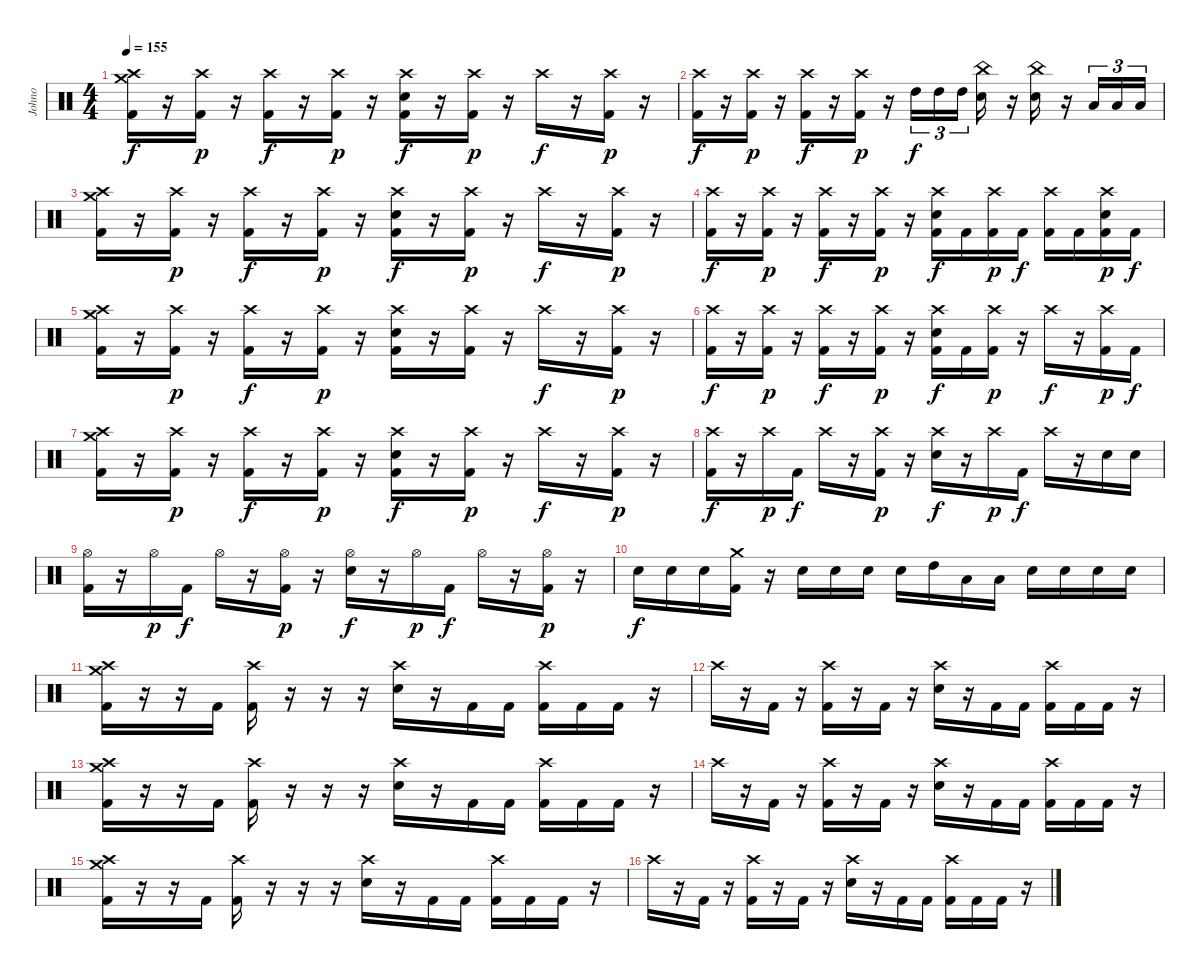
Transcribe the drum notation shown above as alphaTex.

\track ("Johno" "Johno") {instrument percussion}
\staff {score}
\articulation defaults
\ts (4 4)
\tempo 155
\clef neutral
\ks c
("Crash medium (hit)" "Crash high (hit)" "Kick (hit) 2").16{dy f} r.16 ("Crash high (hit)" "Kick (hit) 2").16{dy p} r.16 ("Crash high (hit)" "Kick (hit) 2").16{dy f} r.16 ("Crash high (hit)" "Kick (hit) 2").16{dy p} r.16 ("Crash high (hit)" "Electric Snare (hit)" "Kick (hit) 2").16{dy f} r.16 ("Crash high (hit)" "Kick (hit) 2").16{dy p} r.16 "Crash high (hit)".16{dy f} r.16 ("Crash high (hit)" "Kick (hit) 2").16{dy p} r.16 |
("Crash high (hit)" "Kick (hit) 2").16{dy f} r.16 ("Crash high (hit)" "Kick (hit) 2").16{dy p} r.16 ("Crash high (hit)" "Kick (hit) 2").16{dy f} r.16 ("Crash high (hit)" "Kick (hit) 2").16{dy p} r.16 "High Tom (hit)".16{tu (3 2) dy f} "High Tom (hit)".16{tu (3 2)} "High Tom (hit)".16{tu (3 2) beam splitsecondary} ("China (hit)" "Electric Snare (hit)").16 r.16 ("China (hit)" "Electric Snare (hit)").16 r.16 "Low Floor Tom (hit)".16{tu (3 2)} "Low Floor Tom (hit)".16{tu (3 2)} "Low Floor Tom (hit)".16{tu (3 2)} |
("Crash medium (hit)" "Crash high (hit)" "Kick (hit) 2").16 r.16 ("Crash high (hit)" "Kick (hit) 2").16{dy p} r.16 ("Crash high (hit)" "Kick (hit) 2").16{dy f} r.16 ("Crash high (hit)" "Kick (hit) 2").16{dy p} r.16 ("Crash high (hit)" "Electric Snare (hit)" "Kick (hit) 2").16{dy f} r.16 ("Crash high (hit)" "Kick (hit) 2").16{dy p} r.16 "Crash high (hit)".16{dy f} r.16 ("Crash high (hit)" "Kick (hit) 2").16{dy p} r.16 |
("Crash high (hit)" "Kick (hit) 2").16{dy f} r.16 ("Crash high (hit)" "Kick (hit) 2").16{dy p} r.16 ("Crash high (hit)" "Kick (hit) 2").16{dy f} r.16 ("Crash high (hit)" "Kick (hit) 2").16{dy p} r.16 ("Crash high (hit)" "Electric Snare (hit)" "Kick (hit) 2").16{dy f} "Kick (hit) 2".16 ("Crash high (hit)" "Kick (hit) 2").16{dy p} "Kick (hit) 2".16{dy f} ("Crash high (hit)" "Kick (hit) 2").16 "Kick (hit) 2".16 ("Crash high (hit)" "Electric Snare (hit)" "Kick (hit) 2").16{dy p} "Kick (hit) 2".16{dy f} |
("Crash medium (hit)" "Crash high (hit)" "Kick (hit) 2").16 r.16 ("Crash high (hit)" "Kick (hit) 2").16{dy p} r.16 ("Crash high (hit)" "Kick (hit) 2").16{dy f} r.16 ("Crash high (hit)" "Kick (hit) 2").16{dy p} r.16 ("Crash high (hit)" "Electric Snare (hit)" "Kick (hit) 2").16 r.16 ("Crash high (hit)" "Kick (hit) 2").16 r.16 "Crash high (hit)".16{dy f} r.16 ("Crash high (hit)" "Kick (hit) 2").16{dy p} r.16 |
("Crash high (hit)" "Kick (hit) 2").16{dy f} r.16 ("Crash high (hit)" "Kick (hit) 2").16{dy p} r.16 ("Crash high (hit)" "Kick (hit) 2").16{dy f} r.16 ("Crash high (hit)" "Kick (hit) 2").16{dy p} r.16 ("Crash high (hit)" "Electric Snare (hit)" "Kick (hit) 2").16{dy f} "Kick (hit) 2".16 ("Crash high (hit)" "Kick (hit) 2").16{dy p} r.16 "Crash high (hit)".16{dy f} r.16 ("Crash high (hit)" "Kick (hit) 2").16{dy p} "Kick (hit) 2".16{dy f} |
("Crash medium (hit)" "Crash high (hit)" "Kick (hit) 2").16 r.16 ("Crash high (hit)" "Kick (hit) 2").16{dy p} r.16 ("Crash high (hit)" "Kick (hit) 2").16{dy f} r.16 ("Crash high (hit)" "Kick (hit) 2").16{dy p} r.16 ("Crash high (hit)" "Electric Snare (hit)" "Kick (hit) 2").16{dy f} r.16 ("Crash high (hit)" "Kick (hit) 2").16{dy p} r.16 "Crash high (hit)".16{dy f} r.16 ("Crash high (hit)" "Kick (hit) 2").16{dy p} r.16 |
("Crash high (hit)" "Kick (hit) 2").16{dy f} r.16 "Crash high (hit)".16{dy p} "Kick (hit) 2".16{dy f} "Crash high (hit)".16 r.16 ("Crash high (hit)" "Kick (hit) 2").16{dy p} r.16 ("Crash high (hit)" "Electric Snare (hit)").16{dy f} r.16 "Crash high (hit)".16{dy p} "Kick (hit) 2".16{dy f} "Crash high (hit)".16 r.16 "Electric Snare (hit)".16 "Electric Snare (hit)".16 |
("Hi-Hat (open)" "Kick (hit) 2").16 r.16 "Hi-Hat (open)".16{dy p} "Kick (hit) 2".16{dy f} "Hi-Hat (open)".16 r.16 ("Hi-Hat (open)" "Kick (hit) 2").16{dy p} r.16 ("Hi-Hat (open)" "Electric Snare (hit)").16{dy f} r.16 "Hi-Hat (open)".16{dy p} "Kick (hit) 2".16{dy f} "Hi-Hat (open)".16 r.16 ("Hi-Hat (open)" "Kick (hit) 2").16{dy p} r.16 |
"Electric Snare (hit)".16{dy f} "Electric Snare (hit)".16 "Electric Snare (hit)".16 ("Crash medium (hit)" "Kick (hit) 2").16 r.16 "Electric Snare (hit)".16 "Electric Snare (hit)".16 "Electric Snare (hit)".16 "Electric Snare (hit)".16 "High Tom (hit)".16 "Low Floor Tom (hit)".16 "Low Floor Tom (hit)".16 "Electric Snare (hit)".16 "Electric Snare (hit)".16 "Electric Snare (hit)".16 "Electric Snare (hit)".16 |
("Crash medium (hit)" "Crash high (hit)" "Kick (hit) 2").16 r.16 r.16 "Kick (hit) 2".16 ("Crash high (hit)" "Kick (hit) 2").16 r.16 r.16 r.16 ("Crash high (hit)" "Electric Snare (hit)").16 r.16 "Kick (hit) 2".16 "Kick (hit) 2".16 ("Crash high (hit)" "Kick (hit) 2").16 "Kick (hit) 2".16 "Kick (hit) 2".16 r.16 |
"Crash high (hit)".16 r.16 "Kick (hit) 2".16 r.16 ("Crash high (hit)" "Kick (hit) 2").16 r.16 "Kick (hit) 2".16 r.16 ("Crash high (hit)" "Electric Snare (hit)").16 r.16 "Kick (hit) 2".16 "Kick (hit) 2".16 ("Crash high (hit)" "Kick (hit) 2").16 "Kick (hit) 2".16 "Kick (hit) 2".16 r.16 |
("Crash medium (hit)" "Crash high (hit)" "Kick (hit) 2").16 r.16 r.16 "Kick (hit) 2".16 ("Crash high (hit)" "Kick (hit) 2").16 r.16 r.16 r.16 ("Crash high (hit)" "Electric Snare (hit)").16 r.16 "Kick (hit) 2".16 "Kick (hit) 2".16 ("Crash high (hit)" "Kick (hit) 2").16 "Kick (hit) 2".16 "Kick (hit) 2".16 r.16 |
"Crash high (hit)".16 r.16 "Kick (hit) 2".16 r.16 ("Crash high (hit)" "Kick (hit) 2").16 r.16 "Kick (hit) 2".16 r.16 ("Crash high (hit)" "Electric Snare (hit)").16 r.16 "Kick (hit) 2".16 "Kick (hit) 2".16 ("Crash high (hit)" "Kick (hit) 2").16 "Kick (hit) 2".16 "Kick (hit) 2".16 r.16 |
("Crash high (hit)" "Crash medium (hit)" "Kick (hit) 2").16 r.16 r.16 "Kick (hit) 2".16 ("Crash high (hit)" "Kick (hit) 2").16 r.16 r.16 r.16 ("Crash high (hit)" "Electric Snare (hit)").16 r.16 "Kick (hit) 2".16 "Kick (hit) 2".16 ("Crash high (hit)" "Kick (hit) 2").16 "Kick (hit) 2".16 "Kick (hit) 2".16 r.16 |
"Crash high (hit)".16 r.16 "Kick (hit) 2".16 r.16 ("Crash high (hit)" "Kick (hit) 2").16 r.16 "Kick (hit) 2".16 r.16 ("Crash high (hit)" "Electric Snare (hit)").16 r.16 "Kick (hit) 2".16 "Kick (hit) 2".16 ("Crash high (hit)" "Kick (hit) 2").16 "Kick (hit) 2".16 "Kick (hit) 2".16 r.16
